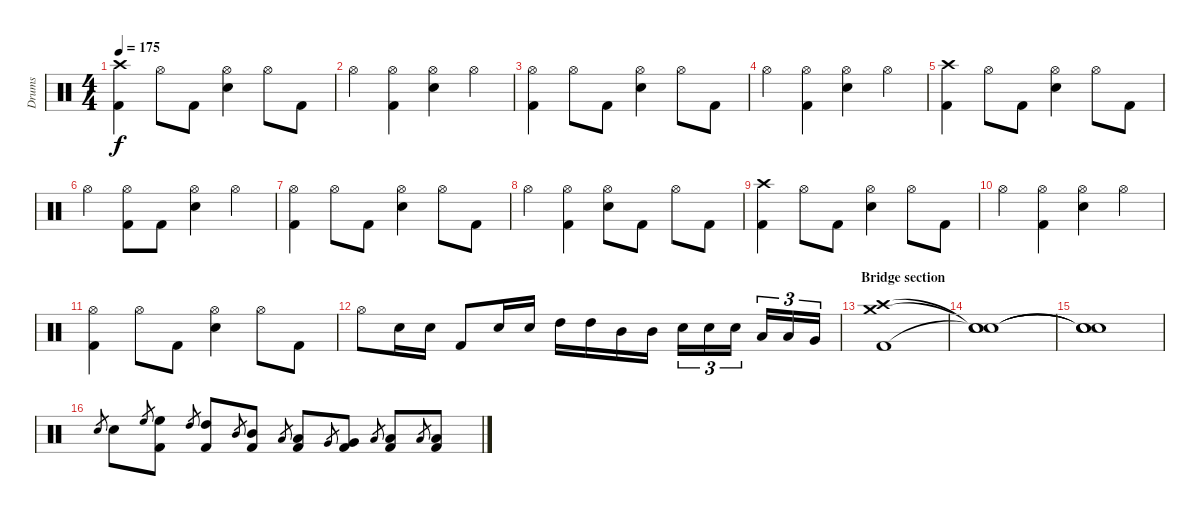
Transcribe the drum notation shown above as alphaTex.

\track ("Drums" "Drums") {instrument percussion}
\staff {score}
\articulation defaults
\ts (4 4)
\tempo 175
\clef neutral
\ks c
("Crash high (hit)" "Kick (hit) 2").4{dy f} "Hi-Hat (open)".8 "Kick (hit) 2".8 ("Hi-Hat (open)" "Electric Snare (hit)").4 "Hi-Hat (open)".8 "Kick (hit) 2".8 |
"Hi-Hat (open)".4 ("Hi-Hat (open)" "Kick (hit) 2").4 ("Hi-Hat (open)" "Electric Snare (hit)").4 "Hi-Hat (open)".4 |
("Hi-Hat (open)" "Kick (hit) 2").4 "Hi-Hat (open)".8 "Kick (hit) 2".8 ("Hi-Hat (open)" "Electric Snare (hit)").4 "Hi-Hat (open)".8 "Kick (hit) 2".8 |
"Hi-Hat (open)".4 ("Hi-Hat (open)" "Kick (hit) 2").4 ("Hi-Hat (open)" "Electric Snare (hit)").4 "Hi-Hat (open)".4 |
\section ("" "")
("Crash high (hit)" "Kick (hit) 2").4 "Hi-Hat (open)".8 "Kick (hit) 2".8 ("Hi-Hat (open)" "Electric Snare (hit)").4 "Hi-Hat (open)".8 "Kick (hit) 2".8 |
"Hi-Hat (open)".4 ("Hi-Hat (open)" "Kick (hit) 2").8 "Kick (hit) 2".8 ("Hi-Hat (open)" "Electric Snare (hit)").4 "Hi-Hat (open)".4 |
("Hi-Hat (open)" "Kick (hit) 2").4 "Hi-Hat (open)".8 "Kick (hit) 2".8 ("Hi-Hat (open)" "Electric Snare (hit)").4 "Hi-Hat (open)".8 "Kick (hit) 2".8 |
"Hi-Hat (open)".4 ("Hi-Hat (open)" "Kick (hit) 2").4 ("Hi-Hat (open)" "Electric Snare (hit)").8 "Kick (hit) 2".8 "Hi-Hat (open)".8 "Kick (hit) 2".8 |
("Crash high (hit)" "Kick (hit) 2").4 "Hi-Hat (open)".8 "Kick (hit) 2".8 ("Hi-Hat (open)" "Electric Snare (hit)").4 "Hi-Hat (open)".8 "Kick (hit) 2".8 |
"Hi-Hat (open)".4 ("Hi-Hat (open)" "Kick (hit) 2").4 ("Hi-Hat (open)" "Electric Snare (hit)").4 "Hi-Hat (open)".4 |
("Hi-Hat (open)" "Kick (hit) 2").4 "Hi-Hat (open)".8 "Kick (hit) 2".8 ("Hi-Hat (open)" "Electric Snare (hit)").4 "Hi-Hat (open)".8 "Kick (hit) 2".8 |
"Hi-Hat (open)".8 "Electric Snare (hit)".16 "Electric Snare (hit)".16 "Kick (hit) 2".8 "Electric Snare (hit)".16 "Electric Snare (hit)".16 "High Tom (hit)".16 "High Tom (hit)".16 "Mid Tom (hit)".16 "Mid Tom (hit)".16 "Electric Snare (hit)".16{tu (3 2)} "Electric Snare (hit)".16{tu (3 2)} "Electric Snare (hit)".16{tu (3 2)} "Low Tom (hit)".16{tu (3 2)} "Low Tom (hit)".16{tu (3 2)} "Very Low Tom (hit)".16{tu (3 2)} |
\section ("" "Bridge section")
("Crash high (hit)" "Crash medium (hit)" "Kick (hit) 2").1 |
("Snare (hit)"{t} "Snare (hit)"{t} "Snare (hit)"{t}).1 |
("Snare (hit)"{t} "Snare (hit)"{t} "Snare (hit)"{t}).1 |
"Electric Snare (hit)".8{gr} "Electric Snare (hit)".8 "High Floor Tom (hit)".8{gr} ("High Floor Tom (hit)" "Kick (hit) 2").8 "High Tom (hit)".8{gr} ("High Tom (hit)" "Kick (hit) 2").8 "Mid Tom (hit)".8{gr} ("Mid Tom (hit)" "Kick (hit) 2").8 "Low Tom (hit)".8{gr} ("Low Tom (hit)" "Kick (hit) 2").8 "Very Low Tom (hit)".8{gr} ("Very Low Tom (hit)" "Kick (hit) 2").8 "Low Floor Tom (hit)".8{gr} ("Low Floor Tom (hit)" "Kick (hit) 2").8 "Low Floor Tom (hit)".8{gr} ("Low Floor Tom (hit)" "Kick (hit) 2").8
